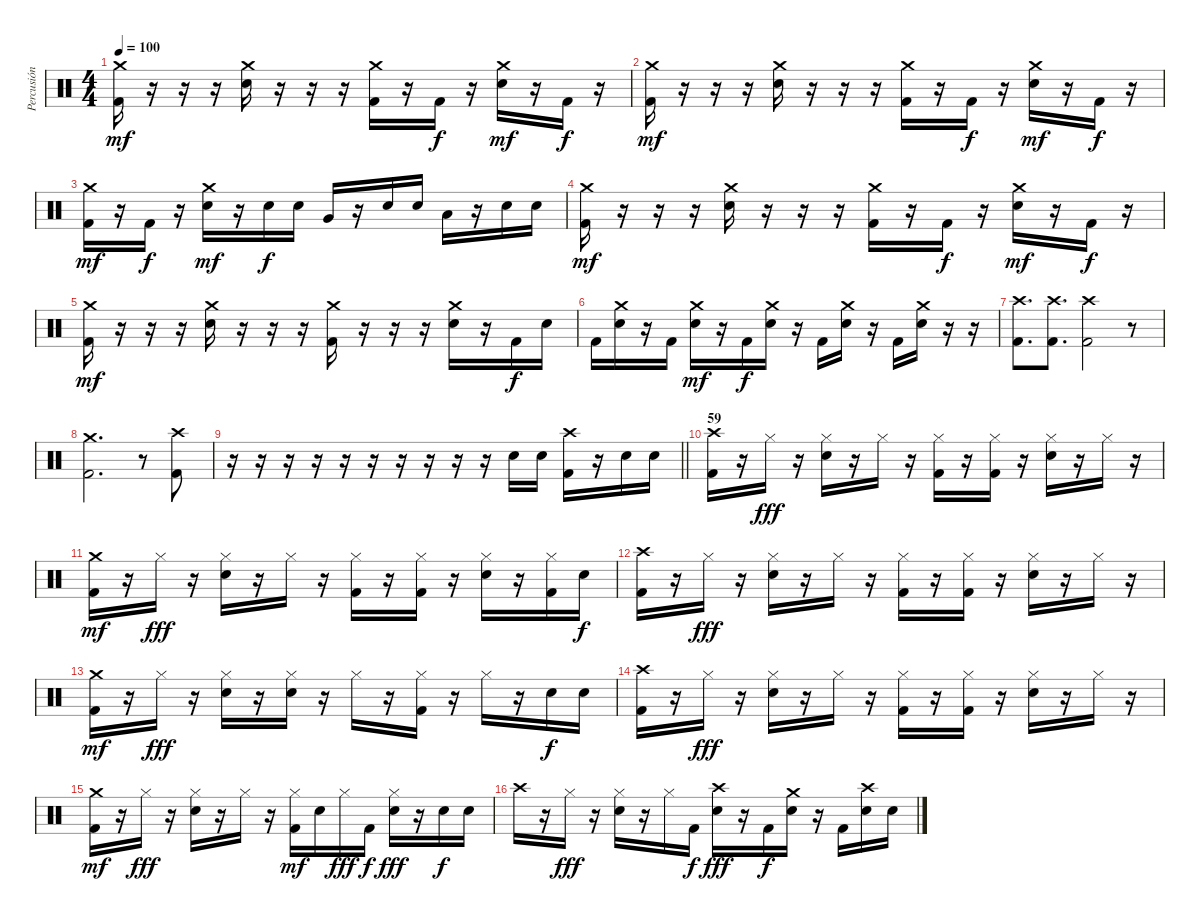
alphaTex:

\track ("Percusión" "Percusión") {instrument percussion}
\staff {score}
\articulation defaults
\ts (4 4)
\tempo 100
\clef neutral
\ks c
("Crash medium (hit)" "Kick (hit) 2").16{dy mf} r.16 r.16 r.16 ("Crash medium (hit)" "Electric Snare (hit)").16 r.16 r.16 r.16 ("Crash medium (hit)" "Kick (hit) 2").16 r.16 "Kick (hit) 2".16{dy f} r.16 ("Crash medium (hit)" "Electric Snare (hit)").16{dy mf} r.16 "Kick (hit) 2".16{dy f} r.16 |
("Crash medium (hit)" "Kick (hit) 2").16{dy mf} r.16 r.16 r.16 ("Crash medium (hit)" "Electric Snare (hit)").16 r.16 r.16 r.16 ("Crash medium (hit)" "Kick (hit) 2").16 r.16 "Kick (hit) 2".16{dy f} r.16 ("Crash medium (hit)" "Electric Snare (hit)").16{dy mf} r.16 "Kick (hit) 2".16{dy f} r.16 |
("Crash medium (hit)" "Kick (hit) 2").16{dy mf} r.16 "Kick (hit) 2".16{dy f} r.16 ("Crash medium (hit)" "Electric Snare (hit)").16{dy mf} r.16 "Electric Snare (hit)".16{dy f} "Electric Snare (hit)".16 "Very Low Tom (hit)".16 r.16 "Electric Snare (hit)".16 "Electric Snare (hit)".16 "Low Tom (hit)".16 r.16 "Electric Snare (hit)".16 "Electric Snare (hit)".16 |
("Crash medium (hit)" "Kick (hit) 2").16{dy mf} r.16 r.16 r.16 ("Crash medium (hit)" "Electric Snare (hit)").16 r.16 r.16 r.16 ("Crash medium (hit)" "Kick (hit) 2").16 r.16 "Kick (hit) 2".16{dy f} r.16 ("Crash medium (hit)" "Electric Snare (hit)").16{dy mf} r.16 "Kick (hit) 2".16{dy f} r.16 |
("Crash medium (hit)" "Kick (hit) 2").16{dy mf} r.16 r.16 r.16 ("Crash medium (hit)" "Electric Snare (hit)").16 r.16 r.16 r.16 ("Crash medium (hit)" "Kick (hit) 2").16 r.16 r.16 r.16 ("Crash medium (hit)" "Electric Snare (hit)").16 r.16 "Kick (hit) 2".16{dy f} "Electric Snare (hit)".16 |
"Kick (hit) 2".16 ("Crash medium (hit)" "Electric Snare (hit)").16 r.16 "Kick (hit) 2".16 ("Crash medium (hit)" "Electric Snare (hit)").16{dy mf} r.16 "Kick (hit) 2".16{dy f} ("Crash medium (hit)" "Electric Snare (hit)").16 r.16 "Kick (hit) 2".16 ("Crash medium (hit)" "Electric Snare (hit)").16 r.16 "Kick (hit) 2".16 ("Crash medium (hit)" "Electric Snare (hit)").16 r.16 r.16 |
("Crash high (hit)" "Kick (hit) 2").8{d} ("Crash high (hit)" "Kick (hit) 2").8{d} ("Crash high (hit)" "Kick (hit) 2").2 r.8 |
("Crash medium (hit)" "Kick (hit) 2").2{d} r.8 ("Crash high (hit)" "Kick (hit) 2").8 |
\barLineRight lightlight
r.16 r.16 r.16 r.16 r.16 r.16 r.16 r.16 r.16 r.16 "Electric Snare (hit)".16 "Electric Snare (hit)".16 ("Crash high (hit)" "Kick (hit) 2").16 r.16 "Electric Snare (hit)".16 "Electric Snare (hit)".16 |
\section ("" "59")
("Crash high (hit)" "Kick (hit) 2").16 r.16 "Hi-Hat (closed)".16{dy fff} r.16 ("Hi-Hat (closed)" "Electric Snare (hit)").16 r.16 "Hi-Hat (closed)".16 r.16 ("Hi-Hat (closed)" "Kick (hit) 2").16 r.16 ("Hi-Hat (closed)" "Kick (hit) 2").16 r.16 ("Hi-Hat (closed)" "Electric Snare (hit)").16 r.16 "Hi-Hat (closed)".16 r.16 |
("Crash medium (hit)" "Kick (hit) 2").16{dy mf} r.16 "Hi-Hat (closed)".16{dy fff} r.16 ("Hi-Hat (closed)" "Electric Snare (hit)").16 r.16 "Hi-Hat (closed)".16 r.16 ("Hi-Hat (closed)" "Kick (hit) 2").16 r.16 ("Hi-Hat (closed)" "Kick (hit) 2").16 r.16 ("Hi-Hat (closed)" "Electric Snare (hit)").16 r.16 ("Hi-Hat (closed)" "Kick (hit) 2").16 "Electric Snare (hit)".16{dy f} |
("Crash high (hit)" "Kick (hit) 2").16 r.16 "Hi-Hat (closed)".16{dy fff} r.16 ("Hi-Hat (closed)" "Electric Snare (hit)").16 r.16 "Hi-Hat (closed)".16 r.16 ("Hi-Hat (closed)" "Kick (hit) 2").16 r.16 ("Hi-Hat (closed)" "Kick (hit) 2").16 r.16 ("Hi-Hat (closed)" "Electric Snare (hit)").16 r.16 "Hi-Hat (closed)".16 r.16 |
("Crash medium (hit)" "Kick (hit) 2").16{dy mf} r.16 "Hi-Hat (closed)".16{dy fff} r.16 ("Hi-Hat (closed)" "Electric Snare (hit)").16 r.16 ("Hi-Hat (closed)" "Electric Snare (hit)").16 r.16 "Hi-Hat (closed)".16 r.16 ("Hi-Hat (closed)" "Kick (hit) 2").16 r.16 "Hi-Hat (closed)".16 r.16 "Electric Snare (hit)".16{dy f} "Electric Snare (hit)".16 |
("Crash high (hit)" "Kick (hit) 2").16 r.16 "Hi-Hat (closed)".16{dy fff} r.16 ("Hi-Hat (closed)" "Electric Snare (hit)").16 r.16 "Hi-Hat (closed)".16 r.16 ("Hi-Hat (closed)" "Kick (hit) 2").16 r.16 ("Hi-Hat (closed)" "Kick (hit) 2").16 r.16 ("Hi-Hat (closed)" "Electric Snare (hit)").16 r.16 "Hi-Hat (closed)".16 r.16 |
("Crash medium (hit)" "Kick (hit) 2").16{dy mf} r.16 "Hi-Hat (closed)".16{dy fff} r.16 ("Hi-Hat (closed)" "Electric Snare (hit)").16 r.16 "Hi-Hat (closed)".16 r.16 ("Hi-Hat (closed)" "Kick (hit) 2").16{dy mf} "Electric Snare (hit)".16 "Hi-Hat (closed)".16{dy fff} "Kick (hit) 2".16{dy f} ("Hi-Hat (closed)" "Electric Snare (hit)").16{dy fff} r.16 "Electric Snare (hit)".16{dy f} "Electric Snare (hit)".16 |
"Crash high (hit)".16 r.16 "Hi-Hat (closed)".16{dy fff} r.16 ("Hi-Hat (closed)" "Electric Snare (hit)").16 r.16 "Hi-Hat (closed)".16 "Kick (hit) 2".16{dy f} ("Crash high (hit)" "Electric Snare (hit)").16{dy fff} r.16 "Kick (hit) 2".16{dy f} ("Crash medium (hit)" "Electric Snare (hit)").16 r.16 "Kick (hit) 2".16 ("Crash high (hit)" "Electric Snare (hit)").16 "Electric Snare (hit)".16
